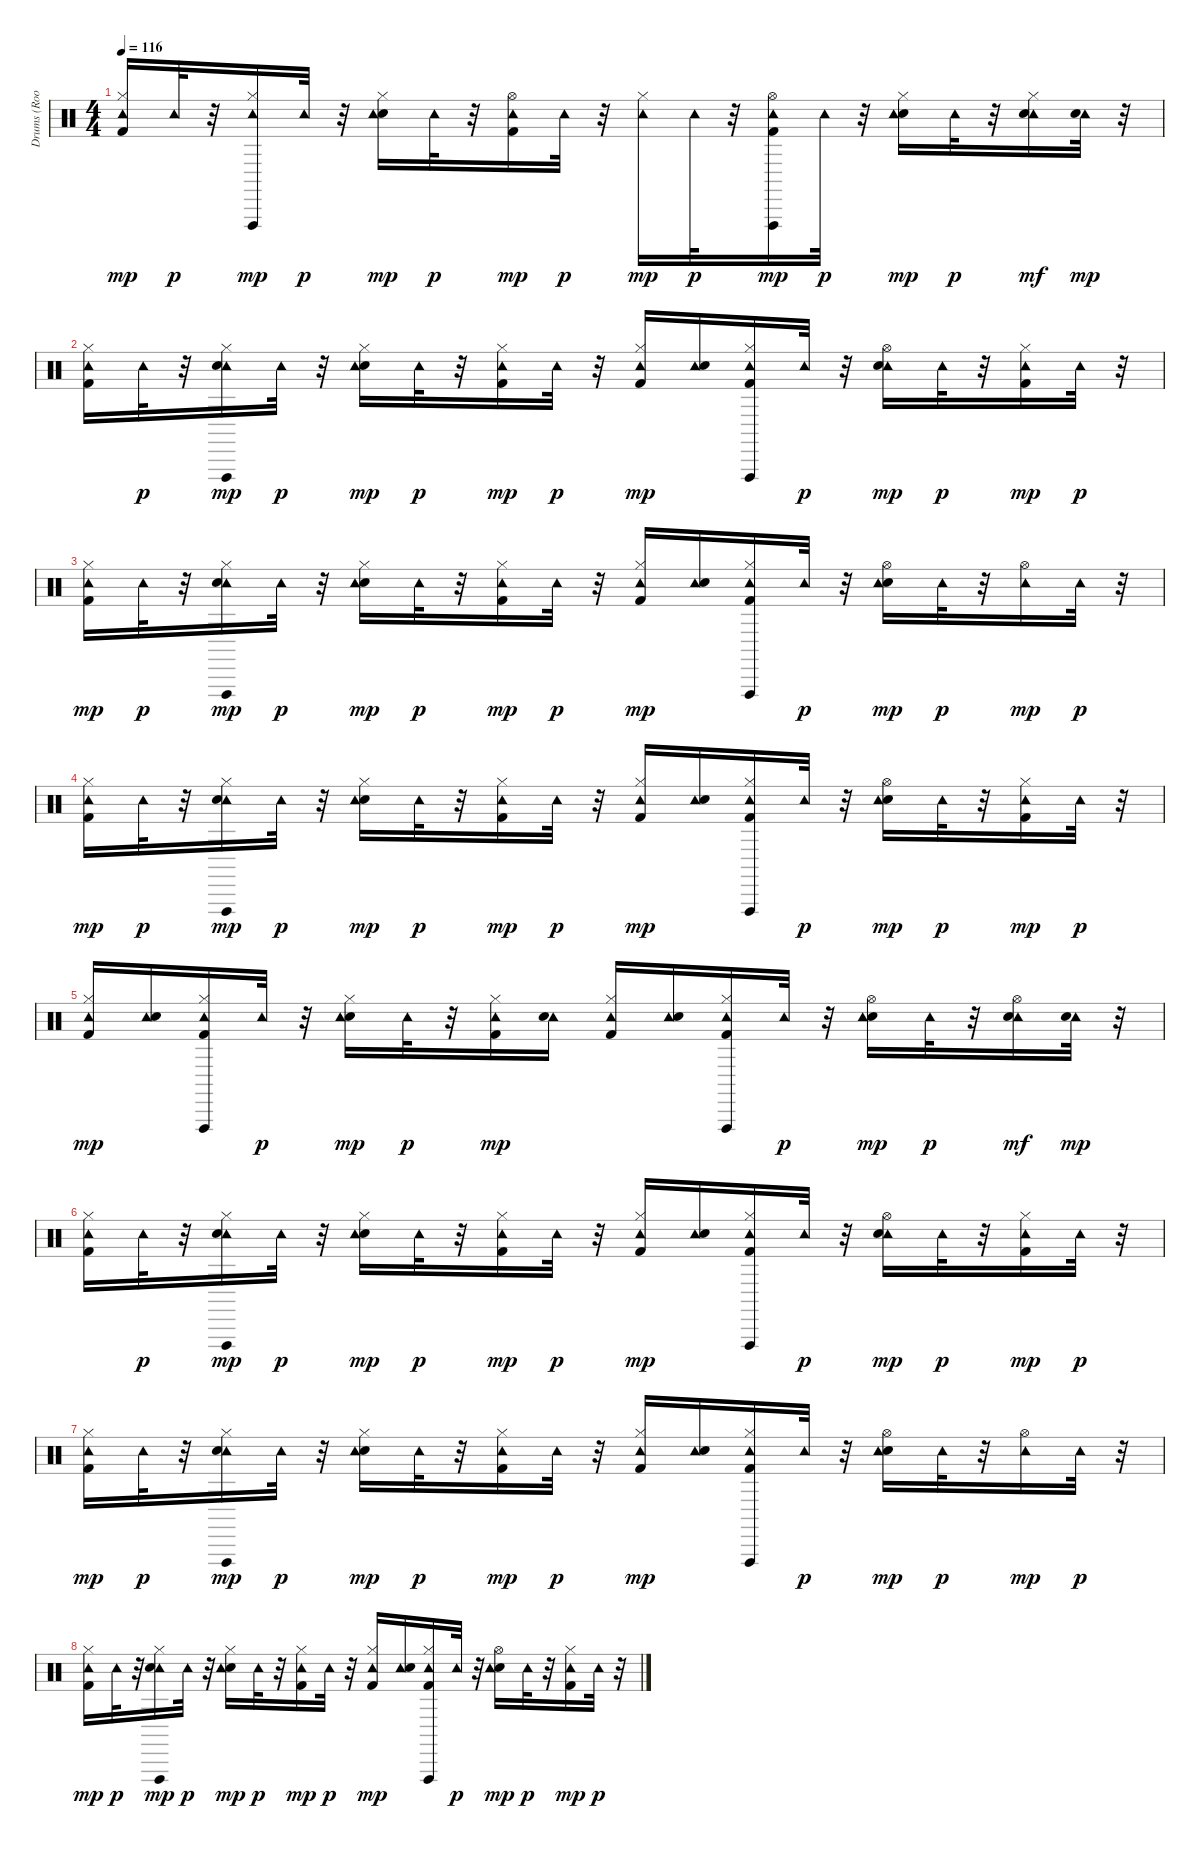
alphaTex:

\track ("Drums (Room Kit)    " "Drums (Roo") {instrument percussion}
\staff {score}
\articulation defaults
\ts (4 4)
\tempo 116
\clef neutral
\ks c
("Hi-Hat (closed)" "Kick (hit) 2" "Tambourine (hit)").16{dy mp} "Tambourine (hit)".32{dy p} r.32 ("Hi-Hat (closed)" "Tambourine (hit)" "Vibraslap (hit)").16{dy mp} "Tambourine (hit)".32{dy p} r.32 ("Hi-Hat (closed)" "Snare (hit) 2" "Tambourine (hit)").16{dy mp} "Tambourine (hit)".32{dy p} r.32 ("Kick (hit) 2" "Tambourine (hit)" "Hi-Hat (open)").16{dy mp} "Tambourine (hit)".32{dy p} r.32 ("Hi-Hat (closed)" "Tambourine (hit)").16{dy mp} "Tambourine (hit)".32{dy p} r.32 ("Kick (hit) 2" "Tambourine (hit)" "Vibraslap (hit)" "Hi-Hat (open)").16{dy mp} "Tambourine (hit)".32{dy p} r.32 ("Hi-Hat (closed)" "Snare (hit) 2" "Tambourine (hit)").16{dy mp} "Tambourine (hit)".32{dy p} r.32 ("Hi-Hat (closed)" "Tambourine (hit)" "Snare (hit) 2").16{dy mf} ("Tambourine (hit)" "Snare (hit) 2").32{dy mp} r.32 |
("Kick (hit) 2" "Hi-Hat (closed)" "Tambourine (hit)").16 "Tambourine (hit)".32{dy p} r.32 ("Hi-Hat (closed)" "Tambourine (hit)" "Vibraslap (hit)" "Snare (hit) 2").16{dy mp} "Tambourine (hit)".32{dy p} r.32 ("Snare (hit) 2" "Hi-Hat (closed)" "Tambourine (hit)").16{dy mp} "Tambourine (hit)".32{dy p} r.32 ("Kick (hit) 2" "Tambourine (hit)" "Hi-Hat (closed)").16{dy mp} "Tambourine (hit)".32{dy p} r.32 ("Hi-Hat (closed)" "Tambourine (hit)" "Kick (hit) 2").16{dy mp} ("Tambourine (hit)" "Snare (hit) 2").16 ("Tambourine (hit)" "Vibraslap (hit)" "Hi-Hat (closed)" "Kick (hit) 2").16 "Tambourine (hit)".32{dy p} r.32 ("Tambourine (hit)" "Hi-Hat (open)" "Snare (hit) 2").16{dy mp} "Tambourine (hit)".32{dy p} r.32 ("Hi-Hat (closed)" "Tambourine (hit)" "Kick (hit) 2").16{dy mp} "Tambourine (hit)".32{dy p} r.32 |
("Hi-Hat (closed)" "Kick (hit) 2" "Tambourine (hit)").16{dy mp} "Tambourine (hit)".32{dy p} r.32 ("Hi-Hat (closed)" "Tambourine (hit)" "Vibraslap (hit)" "Snare (hit) 2").16{dy mp} "Tambourine (hit)".32{dy p} r.32 ("Hi-Hat (closed)" "Snare (hit) 2" "Tambourine (hit)").16{dy mp} "Tambourine (hit)".32{dy p} r.32 ("Kick (hit) 2" "Tambourine (hit)" "Hi-Hat (closed)").16{dy mp} "Tambourine (hit)".32{dy p} r.32 ("Hi-Hat (closed)" "Tambourine (hit)" "Kick (hit) 2").16{dy mp} ("Tambourine (hit)" "Snare (hit) 2").16 ("Kick (hit) 2" "Tambourine (hit)" "Vibraslap (hit)" "Hi-Hat (closed)").16 "Tambourine (hit)".32{dy p} r.32 ("Snare (hit) 2" "Tambourine (hit)" "Hi-Hat (open)").16{dy mp} "Tambourine (hit)".32{dy p} r.32 ("Tambourine (hit)" "Hi-Hat (open)").16{dy mp} "Tambourine (hit)".32{dy p} r.32 |
("Kick (hit) 2" "Hi-Hat (closed)" "Tambourine (hit)").16{dy mp} "Tambourine (hit)".32{dy p} r.32 ("Hi-Hat (closed)" "Tambourine (hit)" "Vibraslap (hit)" "Snare (hit) 2").16{dy mp} "Tambourine (hit)".32{dy p} r.32 ("Snare (hit) 2" "Hi-Hat (closed)" "Tambourine (hit)").16{dy mp} "Tambourine (hit)".32{dy p} r.32 ("Kick (hit) 2" "Tambourine (hit)" "Hi-Hat (closed)").16{dy mp} "Tambourine (hit)".32{dy p} r.32 ("Hi-Hat (closed)" "Tambourine (hit)" "Kick (hit) 2").16{dy mp} ("Tambourine (hit)" "Snare (hit) 2").16 ("Kick (hit) 2" "Tambourine (hit)" "Vibraslap (hit)" "Hi-Hat (closed)").16 "Tambourine (hit)".32{dy p} r.32 ("Snare (hit) 2" "Tambourine (hit)" "Hi-Hat (open)").16{dy mp} "Tambourine (hit)".32{dy p} r.32 ("Hi-Hat (closed)" "Tambourine (hit)" "Kick (hit) 2").16{dy mp} "Tambourine (hit)".32{dy p} r.32 |
("Hi-Hat (closed)" "Kick (hit) 2" "Tambourine (hit)").16{dy mp} ("Tambourine (hit)" "Snare (hit) 2").16 ("Hi-Hat (closed)" "Tambourine (hit)" "Vibraslap (hit)" "Kick (hit) 2").16 "Tambourine (hit)".32{dy p} r.32 ("Snare (hit) 2" "Tambourine (hit)" "Hi-Hat (closed)").16{dy mp} "Tambourine (hit)".32{dy p} r.32 ("Kick (hit) 2" "Tambourine (hit)" "Hi-Hat (closed)").16{dy mp} ("Tambourine (hit)" "Snare (hit) 2").16 ("Hi-Hat (closed)" "Tambourine (hit)" "Kick (hit) 2").16 ("Tambourine (hit)" "Snare (hit) 2").16 ("Kick (hit) 2" "Tambourine (hit)" "Vibraslap (hit)" "Hi-Hat (closed)").16 "Tambourine (hit)".32{dy p} r.32 ("Snare (hit) 2" "Tambourine (hit)" "Hi-Hat (open)").16{dy mp} "Tambourine (hit)".32{dy p} r.32 ("Tambourine (hit)" "Hi-Hat (open)" "Snare (hit) 2").16{dy mf} ("Tambourine (hit)" "Snare (hit) 2").32{dy mp} r.32 |
("Kick (hit) 2" "Hi-Hat (closed)" "Tambourine (hit)").16 "Tambourine (hit)".32{dy p} r.32 ("Hi-Hat (closed)" "Tambourine (hit)" "Vibraslap (hit)" "Snare (hit) 2").16{dy mp} "Tambourine (hit)".32{dy p} r.32 ("Snare (hit) 2" "Hi-Hat (closed)" "Tambourine (hit)").16{dy mp} "Tambourine (hit)".32{dy p} r.32 ("Kick (hit) 2" "Tambourine (hit)" "Hi-Hat (closed)").16{dy mp} "Tambourine (hit)".32{dy p} r.32 ("Hi-Hat (closed)" "Tambourine (hit)" "Kick (hit) 2").16{dy mp} ("Tambourine (hit)" "Snare (hit) 2").16 ("Tambourine (hit)" "Vibraslap (hit)" "Hi-Hat (closed)" "Kick (hit) 2").16 "Tambourine (hit)".32{dy p} r.32 ("Tambourine (hit)" "Hi-Hat (open)" "Snare (hit) 2").16{dy mp} "Tambourine (hit)".32{dy p} r.32 ("Hi-Hat (closed)" "Tambourine (hit)" "Kick (hit) 2").16{dy mp} "Tambourine (hit)".32{dy p} r.32 |
("Hi-Hat (closed)" "Kick (hit) 2" "Tambourine (hit)").16{dy mp} "Tambourine (hit)".32{dy p} r.32 ("Hi-Hat (closed)" "Tambourine (hit)" "Vibraslap (hit)" "Snare (hit) 2").16{dy mp} "Tambourine (hit)".32{dy p} r.32 ("Hi-Hat (closed)" "Snare (hit) 2" "Tambourine (hit)").16{dy mp} "Tambourine (hit)".32{dy p} r.32 ("Kick (hit) 2" "Tambourine (hit)" "Hi-Hat (closed)").16{dy mp} "Tambourine (hit)".32{dy p} r.32 ("Hi-Hat (closed)" "Tambourine (hit)" "Kick (hit) 2").16{dy mp} ("Tambourine (hit)" "Snare (hit) 2").16 ("Kick (hit) 2" "Tambourine (hit)" "Vibraslap (hit)" "Hi-Hat (closed)").16 "Tambourine (hit)".32{dy p} r.32 ("Snare (hit) 2" "Tambourine (hit)" "Hi-Hat (open)").16{dy mp} "Tambourine (hit)".32{dy p} r.32 ("Tambourine (hit)" "Hi-Hat (open)").16{dy mp} "Tambourine (hit)".32{dy p} r.32 |
("Kick (hit) 2" "Hi-Hat (closed)" "Tambourine (hit)").16{dy mp} "Tambourine (hit)".32{dy p} r.32 ("Hi-Hat (closed)" "Tambourine (hit)" "Vibraslap (hit)" "Snare (hit) 2").16{dy mp} "Tambourine (hit)".32{dy p} r.32 ("Snare (hit) 2" "Hi-Hat (closed)" "Tambourine (hit)").16{dy mp} "Tambourine (hit)".32{dy p} r.32 ("Kick (hit) 2" "Tambourine (hit)" "Hi-Hat (closed)").16{dy mp} "Tambourine (hit)".32{dy p} r.32 ("Hi-Hat (closed)" "Tambourine (hit)" "Kick (hit) 2").16{dy mp} ("Tambourine (hit)" "Snare (hit) 2").16 ("Kick (hit) 2" "Tambourine (hit)" "Vibraslap (hit)" "Hi-Hat (closed)").16 "Tambourine (hit)".32{dy p} r.32 ("Snare (hit) 2" "Tambourine (hit)" "Hi-Hat (open)").16{dy mp} "Tambourine (hit)".32{dy p} r.32 ("Hi-Hat (closed)" "Tambourine (hit)" "Kick (hit) 2").16{dy mp} "Tambourine (hit)".32{dy p} r.32
